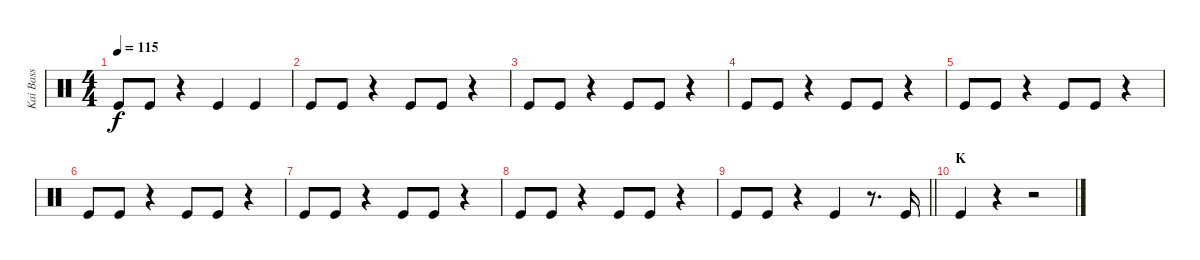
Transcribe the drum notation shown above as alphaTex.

\track ("Kai Bass" "Kai Bass") {instrument percussion}
\staff {score}
\articulation defaults
\ts (4 4)
\tempo 115
\clef neutral
\ks c "Kick (hit)".8{dy f} "Kick (hit)".8
r.4 "Kick (hit)".4 "Kick (hit)".4 |
"Kick (hit)".8 "Kick (hit)".8 r.4 "Kick (hit)".8 "Kick (hit)".8 r.4 |
"Kick (hit)".8 "Kick (hit)".8 r.4 "Kick (hit)".8 "Kick (hit)".8 r.4 |
"Kick (hit)".8 "Kick (hit)".8 r.4 "Kick (hit)".8 "Kick (hit)".8 r.4 |
"Kick (hit)".8 "Kick (hit)".8 r.4 "Kick (hit)".8 "Kick (hit)".8 r.4 |
"Kick (hit)".8 "Kick (hit)".8 r.4 "Kick (hit)".8 "Kick (hit)".8 r.4 |
"Kick (hit)".8 "Kick (hit)".8 r.4 "Kick (hit)".8 "Kick (hit)".8 r.4 |
"Kick (hit)".8 "Kick (hit)".8 r.4 "Kick (hit)".8 "Kick (hit)".8 r.4 |
\barLineRight lightlight "Kick (hit)".8 "Kick (hit)".8
r.4 "Kick (hit)".4 r.8{d} "Kick (hit)".16 |
\section ("" "K")
"Kick (hit)".4 r.4 r.2
